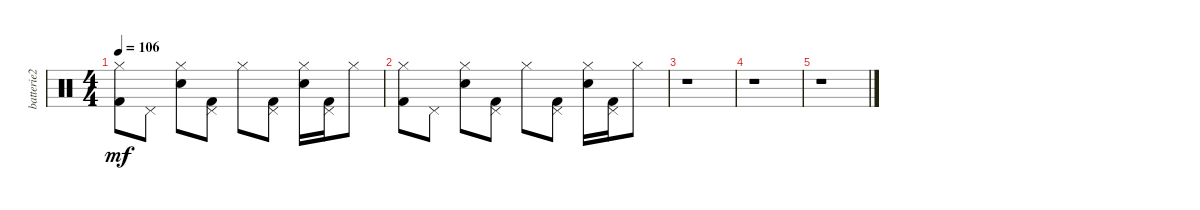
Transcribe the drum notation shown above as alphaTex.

\track ("batterie2" "batterie2") {instrument percussion}
\staff {score}
\articulation defaults
\ts (4 4)
\tempo 106
\clef neutral
\ks c
("Kick (hit) 2" "Hi-Hat (closed)").8{dy mf} "Pedal Hi-Hat (hit)".8 ("Snare (hit) 2" "Hi-Hat (closed)").8 ("Kick (hit) 2" "Pedal Hi-Hat (hit)").8 "Hi-Hat (closed)".8 ("Kick (hit) 2" "Pedal Hi-Hat (hit)").8 ("Snare (hit) 2" "Hi-Hat (closed)").16 ("Kick (hit) 2" "Pedal Hi-Hat (hit)").16 "Hi-Hat (closed)".8 |
("Kick (hit) 2" "Hi-Hat (closed)").8 "Pedal Hi-Hat (hit)".8 ("Snare (hit) 2" "Hi-Hat (closed)").8 ("Kick (hit) 2" "Pedal Hi-Hat (hit)").8 "Hi-Hat (closed)".8 ("Kick (hit) 2" "Pedal Hi-Hat (hit)").8 ("Snare (hit) 2" "Hi-Hat (closed)").16 ("Kick (hit) 2" "Pedal Hi-Hat (hit)").16 "Hi-Hat (closed)".8 |
r.1 |
r.1 |
r.1
